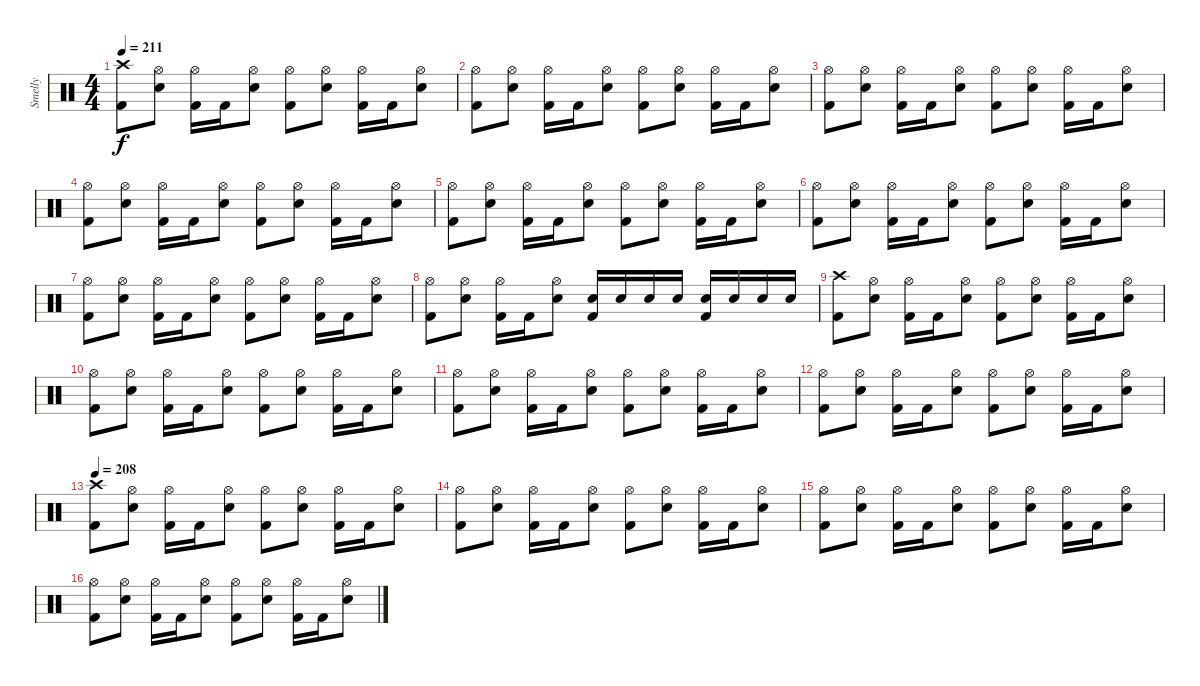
\track ("Smelly" "Smelly") {instrument percussion}
\staff {score}
\articulation defaults
\ts (4 4)
\section ("" "")
\tempo 211
\clef neutral
\ks c
("Crash high (hit)" "Kick (hit) 2").8{dy f} ("Hi-Hat (open)" "Electric Snare (hit)").8 ("Hi-Hat (open)" "Kick (hit) 2").16 "Kick (hit) 2".16 ("Hi-Hat (open)" "Electric Snare (hit)").8 ("Hi-Hat (open)" "Kick (hit) 2").8 ("Hi-Hat (open)" "Electric Snare (hit)").8 ("Hi-Hat (open)" "Kick (hit) 2").16 "Kick (hit) 2".16 ("Hi-Hat (open)" "Electric Snare (hit)").8 |
("Hi-Hat (open)" "Kick (hit) 2").8 ("Hi-Hat (open)" "Electric Snare (hit)").8 ("Hi-Hat (open)" "Kick (hit) 2").16 "Kick (hit) 2".16 ("Hi-Hat (open)" "Electric Snare (hit)").8 ("Hi-Hat (open)" "Kick (hit) 2").8 ("Hi-Hat (open)" "Electric Snare (hit)").8 ("Hi-Hat (open)" "Kick (hit) 2").16 "Kick (hit) 2".16 ("Hi-Hat (open)" "Electric Snare (hit)").8 |
("Hi-Hat (open)" "Kick (hit) 2").8 ("Hi-Hat (open)" "Electric Snare (hit)").8 ("Hi-Hat (open)" "Kick (hit) 2").16 "Kick (hit) 2".16 ("Hi-Hat (open)" "Electric Snare (hit)").8 ("Hi-Hat (open)" "Kick (hit) 2").8 ("Hi-Hat (open)" "Electric Snare (hit)").8 ("Hi-Hat (open)" "Kick (hit) 2").16 "Kick (hit) 2".16 ("Hi-Hat (open)" "Electric Snare (hit)").8 |
("Hi-Hat (open)" "Kick (hit) 2").8 ("Hi-Hat (open)" "Electric Snare (hit)").8 ("Hi-Hat (open)" "Kick (hit) 2").16 "Kick (hit) 2".16 ("Hi-Hat (open)" "Electric Snare (hit)").8 ("Hi-Hat (open)" "Kick (hit) 2").8 ("Hi-Hat (open)" "Electric Snare (hit)").8 ("Hi-Hat (open)" "Kick (hit) 2").16 "Kick (hit) 2".16 ("Hi-Hat (open)" "Electric Snare (hit)").8 |
("Hi-Hat (open)" "Kick (hit) 2").8 ("Hi-Hat (open)" "Electric Snare (hit)").8 ("Hi-Hat (open)" "Kick (hit) 2").16 "Kick (hit) 2".16 ("Hi-Hat (open)" "Electric Snare (hit)").8 ("Hi-Hat (open)" "Kick (hit) 2").8 ("Hi-Hat (open)" "Electric Snare (hit)").8 ("Hi-Hat (open)" "Kick (hit) 2").16 "Kick (hit) 2".16 ("Hi-Hat (open)" "Electric Snare (hit)").8 |
("Hi-Hat (open)" "Kick (hit) 2").8 ("Hi-Hat (open)" "Electric Snare (hit)").8 ("Hi-Hat (open)" "Kick (hit) 2").16 "Kick (hit) 2".16 ("Hi-Hat (open)" "Electric Snare (hit)").8 ("Hi-Hat (open)" "Kick (hit) 2").8 ("Hi-Hat (open)" "Electric Snare (hit)").8 ("Hi-Hat (open)" "Kick (hit) 2").16 "Kick (hit) 2".16 ("Hi-Hat (open)" "Electric Snare (hit)").8 |
("Hi-Hat (open)" "Kick (hit) 2").8 ("Hi-Hat (open)" "Electric Snare (hit)").8 ("Hi-Hat (open)" "Kick (hit) 2").16 "Kick (hit) 2".16 ("Hi-Hat (open)" "Electric Snare (hit)").8 ("Hi-Hat (open)" "Kick (hit) 2").8 ("Hi-Hat (open)" "Electric Snare (hit)").8 ("Hi-Hat (open)" "Kick (hit) 2").16 "Kick (hit) 2".16 ("Hi-Hat (open)" "Electric Snare (hit)").8 |
("Hi-Hat (open)" "Kick (hit) 2").8 ("Hi-Hat (open)" "Electric Snare (hit)").8 ("Hi-Hat (open)" "Kick (hit) 2").16 "Kick (hit) 2".16 ("Hi-Hat (open)" "Electric Snare (hit)").8 ("Electric Snare (hit)" "Kick (hit) 2").16 "Electric Snare (hit)".16 "Electric Snare (hit)".16 "Electric Snare (hit)".16 ("Electric Snare (hit)" "Kick (hit) 2").16 "Electric Snare (hit)".16 "Electric Snare (hit)".16 "Electric Snare (hit)".16 |
("Crash high (hit)" "Kick (hit) 2").8 ("Hi-Hat (open)" "Electric Snare (hit)").8 ("Hi-Hat (open)" "Kick (hit) 2").16 "Kick (hit) 2".16 ("Hi-Hat (open)" "Electric Snare (hit)").8 ("Hi-Hat (open)" "Kick (hit) 2").8 ("Hi-Hat (open)" "Electric Snare (hit)").8 ("Hi-Hat (open)" "Kick (hit) 2").16 "Kick (hit) 2".16 ("Hi-Hat (open)" "Electric Snare (hit)").8 |
("Hi-Hat (open)" "Kick (hit) 2").8 ("Hi-Hat (open)" "Electric Snare (hit)").8 ("Hi-Hat (open)" "Kick (hit) 2").16 "Kick (hit) 2".16 ("Hi-Hat (open)" "Electric Snare (hit)").8 ("Hi-Hat (open)" "Kick (hit) 2").8 ("Hi-Hat (open)" "Electric Snare (hit)").8 ("Hi-Hat (open)" "Kick (hit) 2").16 "Kick (hit) 2".16 ("Hi-Hat (open)" "Electric Snare (hit)").8 |
("Hi-Hat (open)" "Kick (hit) 2").8 ("Hi-Hat (open)" "Electric Snare (hit)").8 ("Hi-Hat (open)" "Kick (hit) 2").16 "Kick (hit) 2".16 ("Hi-Hat (open)" "Electric Snare (hit)").8 ("Hi-Hat (open)" "Kick (hit) 2").8 ("Hi-Hat (open)" "Electric Snare (hit)").8 ("Hi-Hat (open)" "Kick (hit) 2").16 "Kick (hit) 2".16 ("Hi-Hat (open)" "Electric Snare (hit)").8 |
("Hi-Hat (open)" "Kick (hit) 2").8 ("Hi-Hat (open)" "Electric Snare (hit)").8 ("Hi-Hat (open)" "Kick (hit) 2").16 "Kick (hit) 2".16 ("Hi-Hat (open)" "Electric Snare (hit)").8 ("Hi-Hat (open)" "Kick (hit) 2").8 ("Hi-Hat (open)" "Electric Snare (hit)").8 ("Hi-Hat (open)" "Kick (hit) 2").16 "Kick (hit) 2".16 ("Hi-Hat (open)" "Electric Snare (hit)").8 |
\tempo 208
("Crash high (hit)" "Kick (hit) 2").8 ("Hi-Hat (open)" "Electric Snare (hit)").8 ("Hi-Hat (open)" "Kick (hit) 2").16 "Kick (hit) 2".16 ("Hi-Hat (open)" "Electric Snare (hit)").8 ("Hi-Hat (open)" "Kick (hit) 2").8 ("Hi-Hat (open)" "Electric Snare (hit)").8 ("Hi-Hat (open)" "Kick (hit) 2").16 "Kick (hit) 2".16 ("Hi-Hat (open)" "Electric Snare (hit)").8 |
("Hi-Hat (open)" "Kick (hit) 2").8 ("Hi-Hat (open)" "Electric Snare (hit)").8 ("Hi-Hat (open)" "Kick (hit) 2").16 "Kick (hit) 2".16 ("Hi-Hat (open)" "Electric Snare (hit)").8 ("Hi-Hat (open)" "Kick (hit) 2").8 ("Hi-Hat (open)" "Electric Snare (hit)").8 ("Hi-Hat (open)" "Kick (hit) 2").16 "Kick (hit) 2".16 ("Hi-Hat (open)" "Electric Snare (hit)").8 |
("Hi-Hat (open)" "Kick (hit) 2").8 ("Hi-Hat (open)" "Electric Snare (hit)").8 ("Hi-Hat (open)" "Kick (hit) 2").16 "Kick (hit) 2".16 ("Hi-Hat (open)" "Electric Snare (hit)").8 ("Hi-Hat (open)" "Kick (hit) 2").8 ("Hi-Hat (open)" "Electric Snare (hit)").8 ("Hi-Hat (open)" "Kick (hit) 2").16 "Kick (hit) 2".16 ("Hi-Hat (open)" "Electric Snare (hit)").8 |
("Hi-Hat (open)" "Kick (hit) 2").8 ("Hi-Hat (open)" "Electric Snare (hit)").8 ("Hi-Hat (open)" "Kick (hit) 2").16 "Kick (hit) 2".16 ("Hi-Hat (open)" "Electric Snare (hit)").8 ("Hi-Hat (open)" "Kick (hit) 2").8 ("Hi-Hat (open)" "Electric Snare (hit)").8 ("Hi-Hat (open)" "Kick (hit) 2").16 "Kick (hit) 2".16 ("Hi-Hat (open)" "Electric Snare (hit)").8
